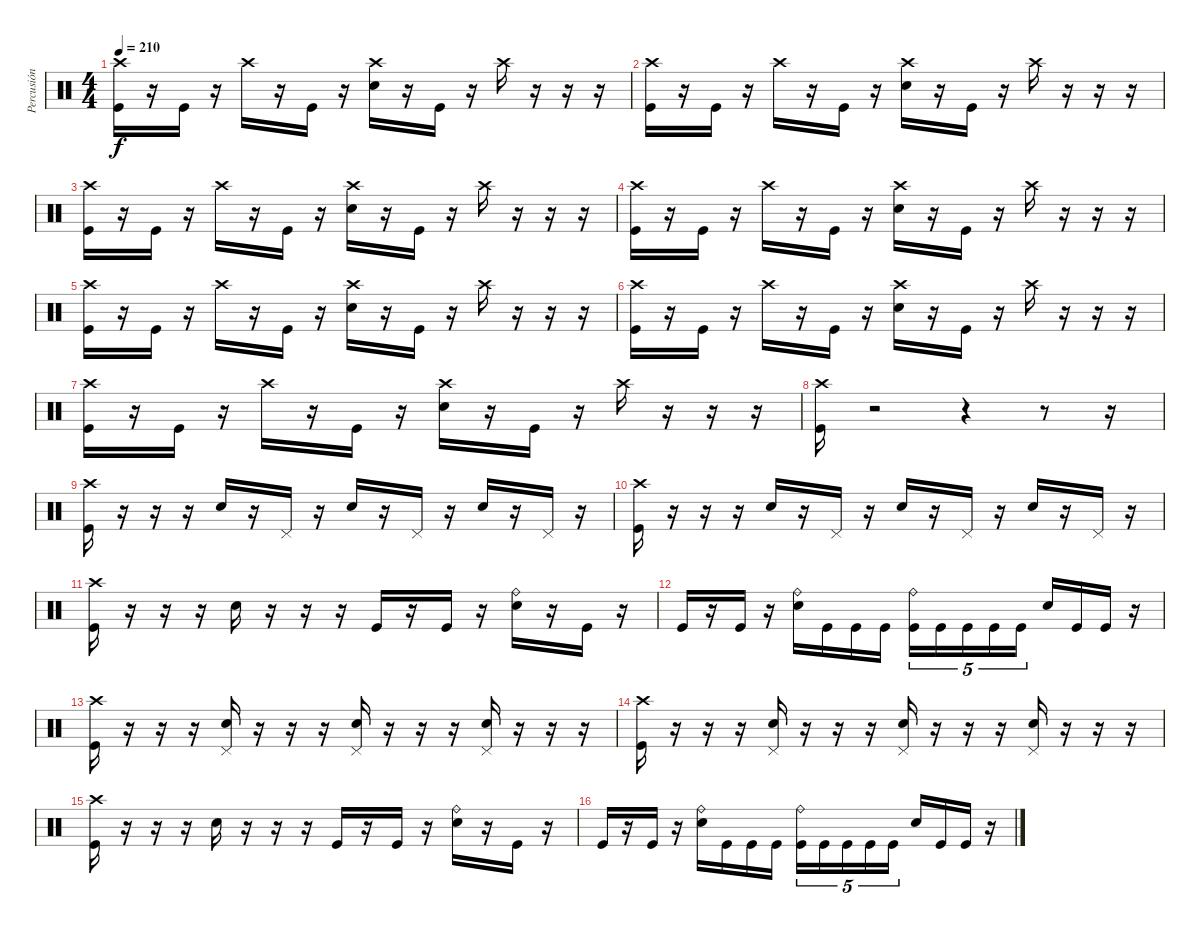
\track ("Percusión" "Percusión") {instrument percussion}
\staff {score}
\articulation defaults
\ts (4 4)
\tempo 210
\clef neutral
\ks c
("Crash high (hit)" "Kick (hit)").16{dy f} r.16 "Kick (hit)".16 r.16 "Crash high (hit)".16 r.16 "Kick (hit)".16 r.16 ("Crash high (hit)" "Snare (hit) 2").16 r.16 "Kick (hit)".16 r.16 "Crash high (hit)".16 r.16 r.16 r.16 |
("Crash high (hit)" "Kick (hit)").16 r.16 "Kick (hit)".16 r.16 "Crash high (hit)".16 r.16 "Kick (hit)".16 r.16 ("Crash high (hit)" "Snare (hit) 2").16 r.16 "Kick (hit)".16 r.16 "Crash high (hit)".16 r.16 r.16 r.16 |
("Crash high (hit)" "Kick (hit)").16 r.16 "Kick (hit)".16 r.16 "Crash high (hit)".16 r.16 "Kick (hit)".16 r.16 ("Crash high (hit)" "Snare (hit) 2").16 r.16 "Kick (hit)".16 r.16 "Crash high (hit)".16 r.16 r.16 r.16 |
("Crash high (hit)" "Kick (hit)").16 r.16 "Kick (hit)".16 r.16 "Crash high (hit)".16 r.16 "Kick (hit)".16 r.16 ("Crash high (hit)" "Snare (hit) 2").16 r.16 "Kick (hit)".16 r.16 "Crash high (hit)".16 r.16 r.16 r.16 |
("Crash high (hit)" "Kick (hit)").16 r.16 "Kick (hit)".16 r.16 "Crash high (hit)".16 r.16 "Kick (hit)".16 r.16 ("Crash high (hit)" "Snare (hit) 2").16 r.16 "Kick (hit)".16 r.16 "Crash high (hit)".16 r.16 r.16 r.16 |
("Crash high (hit)" "Kick (hit)").16 r.16 "Kick (hit)".16 r.16 "Crash high (hit)".16 r.16 "Kick (hit)".16 r.16 ("Crash high (hit)" "Snare (hit) 2").16 r.16 "Kick (hit)".16 r.16 "Crash high (hit)".16 r.16 r.16 r.16 |
("Crash high (hit)" "Kick (hit)").16 r.16 "Kick (hit)".16 r.16 "Crash high (hit)".16 r.16 "Kick (hit)".16 r.16 ("Crash high (hit)" "Snare (hit) 2").16 r.16 "Kick (hit)".16 r.16 "Crash high (hit)".16 r.16 r.16 r.16 |
("Crash high (hit)" "Kick (hit)").16 r.2 r.4 r.8 r.16 |
("Crash high (hit)" "Kick (hit)").16 r.16 r.16 r.16 "Snare (hit) 2".16 r.16 "Pedal Hi-Hat (hit)".16 r.16 "Snare (hit) 2".16 r.16 "Pedal Hi-Hat (hit)".16 r.16 "Snare (hit) 2".16 r.16 "Pedal Hi-Hat (hit)".16 r.16 |
("Crash high (hit)" "Kick (hit)").16 r.16 r.16 r.16 "Snare (hit) 2".16 r.16 "Pedal Hi-Hat (hit)".16 r.16 "Snare (hit) 2".16 r.16 "Pedal Hi-Hat (hit)".16 r.16 "Snare (hit) 2".16 r.16 "Pedal Hi-Hat (hit)".16 r.16 |
("Crash high (hit)" "Kick (hit)").16 r.16 r.16 r.16 "Snare (hit) 2".16 r.16 r.16 r.16 "Kick (hit)".16 r.16 "Kick (hit)".16 r.16 ("Ride (bell)" "Snare (hit) 2").16 r.16 "Kick (hit)".16 r.16 |
"Kick (hit)".16 r.16 "Kick (hit)".16 r.16 ("Ride (bell)" "Snare (hit) 2").16 "Kick (hit)".16 "Kick (hit)".16 "Kick (hit)".16 ("Ride (bell)" "Kick (hit)").16{tu (5 4)} "Kick (hit)".16{tu (5 4)} "Kick (hit)".16{tu (5 4)} "Kick (hit)".16{tu (5 4)} "Kick (hit)".16{tu (5 4)} "Snare (hit) 2".16 "Kick (hit)".16 "Kick (hit)".16 r.16 |
("Crash high (hit)" "Kick (hit)").16 r.16 r.16 r.16 ("Pedal Hi-Hat (hit)" "Snare (hit) 2").16 r.16 r.16 r.16 ("Pedal Hi-Hat (hit)" "Snare (hit) 2").16 r.16 r.16 r.16 ("Pedal Hi-Hat (hit)" "Snare (hit) 2").16 r.16 r.16 r.16 |
("Crash high (hit)" "Kick (hit)").16 r.16 r.16 r.16 ("Pedal Hi-Hat (hit)" "Snare (hit) 2").16 r.16 r.16 r.16 ("Pedal Hi-Hat (hit)" "Snare (hit) 2").16 r.16 r.16 r.16 ("Pedal Hi-Hat (hit)" "Snare (hit) 2").16 r.16 r.16 r.16 |
("Crash high (hit)" "Kick (hit)").16 r.16 r.16 r.16 "Snare (hit) 2".16 r.16 r.16 r.16 "Kick (hit)".16 r.16 "Kick (hit)".16 r.16 ("Ride (bell)" "Snare (hit) 2").16 r.16 "Kick (hit)".16 r.16 |
"Kick (hit)".16 r.16 "Kick (hit)".16 r.16 ("Ride (bell)" "Snare (hit) 2").16 "Kick (hit)".16 "Kick (hit)".16 "Kick (hit)".16 ("Ride (bell)" "Kick (hit)").16{tu (5 4)} "Kick (hit)".16{tu (5 4)} "Kick (hit)".16{tu (5 4)} "Kick (hit)".16{tu (5 4)} "Kick (hit)".16{tu (5 4)} "Snare (hit) 2".16 "Kick (hit)".16 "Kick (hit)".16 r.16
